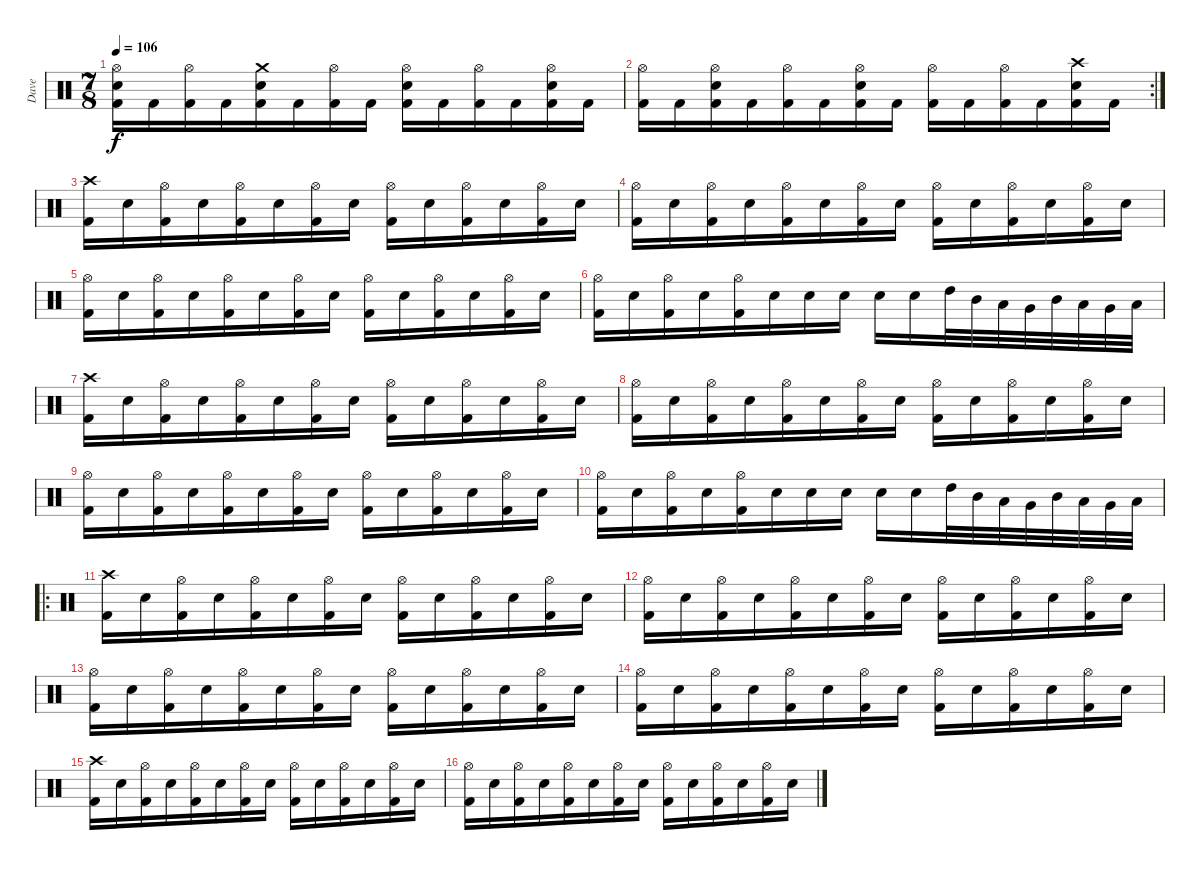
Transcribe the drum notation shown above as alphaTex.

\track ("Dave" "Dave") {instrument percussion}
\staff {score}
\articulation defaults
\ts (7 8)
\tempo 106
\clef neutral
\ks c
("Hi-Hat (open)" "Electric Snare (hit)" "Kick (hit) 2").16{dy f} "Kick (hit) 2".16 ("Hi-Hat (open)" "Kick (hit) 2").16 "Kick (hit) 2".16 ("Crash medium (hit)" "Electric Snare (hit)" "Kick (hit) 2").16 "Kick (hit) 2".16 ("Hi-Hat (open)" "Kick (hit) 2").16 "Kick (hit) 2".16 ("Hi-Hat (open)" "Electric Snare (hit)" "Kick (hit) 2").16 "Kick (hit) 2".16 ("Hi-Hat (open)" "Kick (hit) 2").16 "Kick (hit) 2".16 ("Hi-Hat (open)" "Electric Snare (hit)" "Kick (hit) 2").16 "Kick (hit) 2".16 |
\rc 2
("Hi-Hat (open)" "Kick (hit) 2").16 "Kick (hit) 2".16 ("Hi-Hat (open)" "Electric Snare (hit)" "Kick (hit) 2").16 "Kick (hit) 2".16 ("Hi-Hat (open)" "Kick (hit) 2").16 "Kick (hit) 2".16 ("Hi-Hat (open)" "Electric Snare (hit)" "Kick (hit) 2").16 "Kick (hit) 2".16 ("Hi-Hat (open)" "Kick (hit) 2").16 "Kick (hit) 2".16 ("Hi-Hat (open)" "Kick (hit) 2").16 "Kick (hit) 2".16 ("Electric Snare (hit)" "Crash high (hit)" "Kick (hit) 2").16 "Kick (hit) 2".16 |
("Crash high (hit)" "Kick (hit) 2").16 "Electric Snare (hit)".16 ("Hi-Hat (open)" "Kick (hit) 2").16 "Electric Snare (hit)".16 ("Hi-Hat (open)" "Kick (hit) 2").16 "Electric Snare (hit)".16 ("Hi-Hat (open)" "Kick (hit) 2").16 "Electric Snare (hit)".16 ("Hi-Hat (open)" "Kick (hit) 2").16 "Electric Snare (hit)".16 ("Hi-Hat (open)" "Kick (hit) 2").16 "Electric Snare (hit)".16 ("Hi-Hat (open)" "Kick (hit) 2").16 "Electric Snare (hit)".16 |
("Hi-Hat (open)" "Kick (hit) 2").16 "Electric Snare (hit)".16 ("Hi-Hat (open)" "Kick (hit) 2").16 "Electric Snare (hit)".16 ("Hi-Hat (open)" "Kick (hit) 2").16 "Electric Snare (hit)".16 ("Hi-Hat (open)" "Kick (hit) 2").16 "Electric Snare (hit)".16 ("Hi-Hat (open)" "Kick (hit) 2").16 "Electric Snare (hit)".16 ("Hi-Hat (open)" "Kick (hit) 2").16 "Electric Snare (hit)".16 ("Hi-Hat (open)" "Kick (hit) 2").16 "Electric Snare (hit)".16 |
("Hi-Hat (open)" "Kick (hit) 2").16 "Electric Snare (hit)".16 ("Hi-Hat (open)" "Kick (hit) 2").16 "Electric Snare (hit)".16 ("Hi-Hat (open)" "Kick (hit) 2").16 "Electric Snare (hit)".16 ("Hi-Hat (open)" "Kick (hit) 2").16 "Electric Snare (hit)".16 ("Hi-Hat (open)" "Kick (hit) 2").16 "Electric Snare (hit)".16 ("Hi-Hat (open)" "Kick (hit) 2").16 "Electric Snare (hit)".16 ("Hi-Hat (open)" "Kick (hit) 2").16 "Electric Snare (hit)".16 |
("Hi-Hat (open)" "Kick (hit) 2").16 "Electric Snare (hit)".16 ("Hi-Hat (open)" "Kick (hit) 2").16 "Electric Snare (hit)".16 ("Hi-Hat (open)" "Kick (hit) 2").16 "Electric Snare (hit)".16 "Electric Snare (hit)".16 "Electric Snare (hit)".16 "Electric Snare (hit)".16 "Electric Snare (hit)".16 "High Tom (hit)".32 "Mid Tom (hit)".32 "Low Tom (hit)".32 "Very Low Tom (hit)".32 "Mid Tom (hit)".32 "Low Tom (hit)".32 "Very Low Tom (hit)".32 "Low Floor Tom (hit)".32 |
("Crash high (hit)" "Kick (hit) 2").16 "Electric Snare (hit)".16 ("Hi-Hat (open)" "Kick (hit) 2").16 "Electric Snare (hit)".16 ("Hi-Hat (open)" "Kick (hit) 2").16 "Electric Snare (hit)".16 ("Hi-Hat (open)" "Kick (hit) 2").16 "Electric Snare (hit)".16 ("Hi-Hat (open)" "Kick (hit) 2").16 "Electric Snare (hit)".16 ("Hi-Hat (open)" "Kick (hit) 2").16 "Electric Snare (hit)".16 ("Hi-Hat (open)" "Kick (hit) 2").16 "Electric Snare (hit)".16 |
("Hi-Hat (open)" "Kick (hit) 2").16 "Electric Snare (hit)".16 ("Hi-Hat (open)" "Kick (hit) 2").16 "Electric Snare (hit)".16 ("Hi-Hat (open)" "Kick (hit) 2").16 "Electric Snare (hit)".16 ("Hi-Hat (open)" "Kick (hit) 2").16 "Electric Snare (hit)".16 ("Hi-Hat (open)" "Kick (hit) 2").16 "Electric Snare (hit)".16 ("Hi-Hat (open)" "Kick (hit) 2").16 "Electric Snare (hit)".16 ("Hi-Hat (open)" "Kick (hit) 2").16 "Electric Snare (hit)".16 |
("Hi-Hat (open)" "Kick (hit) 2").16 "Electric Snare (hit)".16 ("Hi-Hat (open)" "Kick (hit) 2").16 "Electric Snare (hit)".16 ("Hi-Hat (open)" "Kick (hit) 2").16 "Electric Snare (hit)".16 ("Hi-Hat (open)" "Kick (hit) 2").16 "Electric Snare (hit)".16 ("Hi-Hat (open)" "Kick (hit) 2").16 "Electric Snare (hit)".16 ("Hi-Hat (open)" "Kick (hit) 2").16 "Electric Snare (hit)".16 ("Hi-Hat (open)" "Kick (hit) 2").16 "Electric Snare (hit)".16 |
("Hi-Hat (open)" "Kick (hit) 2").16 "Electric Snare (hit)".16 ("Hi-Hat (open)" "Kick (hit) 2").16 "Electric Snare (hit)".16 ("Hi-Hat (open)" "Kick (hit) 2").16 "Electric Snare (hit)".16 "Electric Snare (hit)".16 "Electric Snare (hit)".16 "Electric Snare (hit)".16 "Electric Snare (hit)".16 "High Tom (hit)".32 "Mid Tom (hit)".32 "Low Tom (hit)".32 "Very Low Tom (hit)".32 "Mid Tom (hit)".32 "Low Tom (hit)".32 "Very Low Tom (hit)".32 "Low Floor Tom (hit)".32 |
\ro
("Crash high (hit)" "Kick (hit) 2").16 "Electric Snare (hit)".16 ("Hi-Hat (open)" "Kick (hit) 2").16 "Electric Snare (hit)".16 ("Hi-Hat (open)" "Kick (hit) 2").16 "Electric Snare (hit)".16 ("Hi-Hat (open)" "Kick (hit) 2").16 "Electric Snare (hit)".16 ("Hi-Hat (open)" "Kick (hit) 2").16 "Electric Snare (hit)".16 ("Hi-Hat (open)" "Kick (hit) 2").16 "Electric Snare (hit)".16 ("Hi-Hat (open)" "Kick (hit) 2").16 "Electric Snare (hit)".16 |
("Hi-Hat (open)" "Kick (hit) 2").16 "Electric Snare (hit)".16 ("Hi-Hat (open)" "Kick (hit) 2").16 "Electric Snare (hit)".16 ("Hi-Hat (open)" "Kick (hit) 2").16 "Electric Snare (hit)".16 ("Hi-Hat (open)" "Kick (hit) 2").16 "Electric Snare (hit)".16 ("Hi-Hat (open)" "Kick (hit) 2").16 "Electric Snare (hit)".16 ("Hi-Hat (open)" "Kick (hit) 2").16 "Electric Snare (hit)".16 ("Hi-Hat (open)" "Kick (hit) 2").16 "Electric Snare (hit)".16 |
("Hi-Hat (open)" "Kick (hit) 2").16 "Electric Snare (hit)".16 ("Hi-Hat (open)" "Kick (hit) 2").16 "Electric Snare (hit)".16 ("Hi-Hat (open)" "Kick (hit) 2").16 "Electric Snare (hit)".16 ("Hi-Hat (open)" "Kick (hit) 2").16 "Electric Snare (hit)".16 ("Hi-Hat (open)" "Kick (hit) 2").16 "Electric Snare (hit)".16 ("Hi-Hat (open)" "Kick (hit) 2").16 "Electric Snare (hit)".16 ("Hi-Hat (open)" "Kick (hit) 2").16 "Electric Snare (hit)".16 |
("Hi-Hat (open)" "Kick (hit) 2").16 "Electric Snare (hit)".16 ("Hi-Hat (open)" "Kick (hit) 2").16 "Electric Snare (hit)".16 ("Hi-Hat (open)" "Kick (hit) 2").16 "Electric Snare (hit)".16 ("Hi-Hat (open)" "Kick (hit) 2").16 "Electric Snare (hit)".16 ("Hi-Hat (open)" "Kick (hit) 2").16 "Electric Snare (hit)".16 ("Hi-Hat (open)" "Kick (hit) 2").16 "Electric Snare (hit)".16 ("Hi-Hat (open)" "Kick (hit) 2").16 "Electric Snare (hit)".16 |
("Crash high (hit)" "Kick (hit) 2").16 "Electric Snare (hit)".16 ("Hi-Hat (open)" "Kick (hit) 2").16 "Electric Snare (hit)".16 ("Hi-Hat (open)" "Kick (hit) 2").16 "Electric Snare (hit)".16 ("Hi-Hat (open)" "Kick (hit) 2").16 "Electric Snare (hit)".16 ("Hi-Hat (open)" "Kick (hit) 2").16 "Electric Snare (hit)".16 ("Hi-Hat (open)" "Kick (hit) 2").16 "Electric Snare (hit)".16 ("Hi-Hat (open)" "Kick (hit) 2").16 "Electric Snare (hit)".16 |
("Hi-Hat (open)" "Kick (hit) 2").16 "Electric Snare (hit)".16 ("Hi-Hat (open)" "Kick (hit) 2").16 "Electric Snare (hit)".16 ("Hi-Hat (open)" "Kick (hit) 2").16 "Electric Snare (hit)".16 ("Hi-Hat (open)" "Kick (hit) 2").16 "Electric Snare (hit)".16 ("Hi-Hat (open)" "Kick (hit) 2").16 "Electric Snare (hit)".16 ("Hi-Hat (open)" "Kick (hit) 2").16 "Electric Snare (hit)".16 ("Hi-Hat (open)" "Kick (hit) 2").16 "Electric Snare (hit)".16
